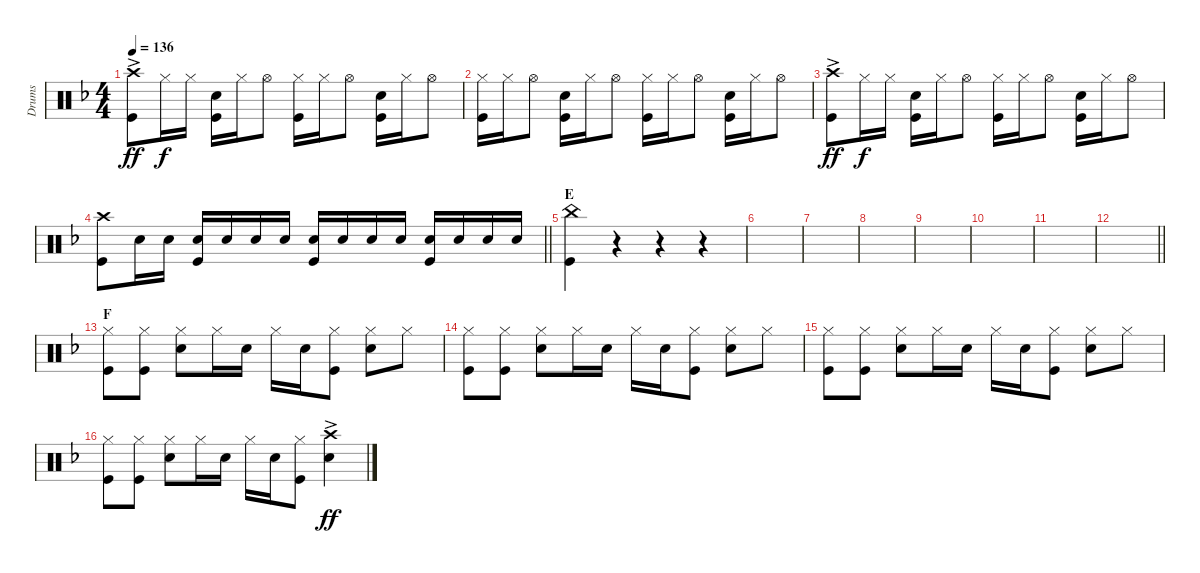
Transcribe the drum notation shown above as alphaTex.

\track ("Drums" "Drums") {instrument percussion}
\staff {score}
\articulation defaults
\ts (4 4)
\tempo 136
\clef neutral
\ks dminor
("Crash high (hit)"{ac} "Kick (hit)").8{dy ff} "Hi-Hat (closed)".16{dy f} "Hi-Hat (closed)".16 ("Snare (hit) 2" "Kick (hit)").16 "Hi-Hat (closed)".16 "Hi-Hat (open)".8 ("Hi-Hat (closed)" "Kick (hit)").16 "Hi-Hat (closed)".16 "Hi-Hat (open)".8 ("Kick (hit)" "Snare (hit) 2").16 "Hi-Hat (closed)".16 "Hi-Hat (open)".8 |
("Kick (hit)" "Hi-Hat (closed)").16 "Hi-Hat (closed)".16 "Hi-Hat (open)".8 ("Kick (hit)" "Snare (hit) 2").16 "Hi-Hat (closed)".16 "Hi-Hat (open)".8 ("Kick (hit)" "Hi-Hat (closed)").16 "Hi-Hat (closed)".16 "Hi-Hat (open)".8 ("Kick (hit)" "Snare (hit) 2").16 "Hi-Hat (closed)".16 "Hi-Hat (open)".8 |
("Crash high (hit)"{ac} "Kick (hit)").8{dy ff} "Hi-Hat (closed)".16{dy f} "Hi-Hat (closed)".16 ("Snare (hit) 2" "Kick (hit)").16 "Hi-Hat (closed)".16 "Hi-Hat (open)".8 ("Hi-Hat (closed)" "Kick (hit)").16 "Hi-Hat (closed)".16 "Hi-Hat (open)".8 ("Kick (hit)" "Snare (hit) 2").16 "Hi-Hat (closed)".16 "Hi-Hat (open)".8 |
\barLineRight lightlight
("Crash high (hit)" "Kick (hit)").8 "Snare (hit) 2".16 "Snare (hit) 2".16 ("Snare (hit) 2" "Kick (hit)").16 "Snare (hit) 2".16 "Snare (hit) 2".16 "Snare (hit) 2".16 ("Snare (hit) 2" "Kick (hit)").16 "Snare (hit) 2".16 "Snare (hit) 2".16 "Snare (hit) 2".16 ("Snare (hit) 2" "Kick (hit)").16 "Snare (hit) 2".16 "Snare (hit) 2".16 "Snare (hit) 2".16 |
\section ("" "E")
("China (hit)" "Kick (hit)").4 r.4 r.4 r.4 |
|
|
|
|
|
|
\barLineRight lightlight
|
\section ("" "F")
("Hi-Hat (closed)" "Kick (hit)").8 ("Hi-Hat (closed)" "Kick (hit)").8 ("Hi-Hat (closed)" "Snare (hit) 2").8 "Hi-Hat (closed)".16 "Snare (hit) 2".16 "Hi-Hat (closed)".16 "Snare (hit) 2".16 ("Hi-Hat (closed)" "Kick (hit)").8 ("Hi-Hat (closed)" "Snare (hit) 2").8 "Hi-Hat (closed)".8 |
("Hi-Hat (closed)" "Kick (hit)").8 ("Hi-Hat (closed)" "Kick (hit)").8 ("Hi-Hat (closed)" "Snare (hit) 2").8 "Hi-Hat (closed)".16 "Snare (hit) 2".16 "Hi-Hat (closed)".16 "Snare (hit) 2".16 ("Hi-Hat (closed)" "Kick (hit)").8 ("Hi-Hat (closed)" "Snare (hit) 2").8 "Hi-Hat (closed)".8 |
("Hi-Hat (closed)" "Kick (hit)").8 ("Hi-Hat (closed)" "Kick (hit)").8 ("Hi-Hat (closed)" "Snare (hit) 2").8 "Hi-Hat (closed)".16 "Snare (hit) 2".16 "Hi-Hat (closed)".16 "Snare (hit) 2".16 ("Hi-Hat (closed)" "Kick (hit)").8 ("Hi-Hat (closed)" "Snare (hit) 2").8 "Hi-Hat (closed)".8 |
("Hi-Hat (closed)" "Kick (hit)").8 ("Hi-Hat (closed)" "Kick (hit)").8 ("Hi-Hat (closed)" "Snare (hit) 2").8 "Hi-Hat (closed)".16 "Snare (hit) 2".16 "Hi-Hat (closed)".16 "Snare (hit) 2".16 ("Hi-Hat (closed)" "Kick (hit)").8 ("Crash high (hit)" "Snare (hit) 2"{ac}).4{dy ff}
